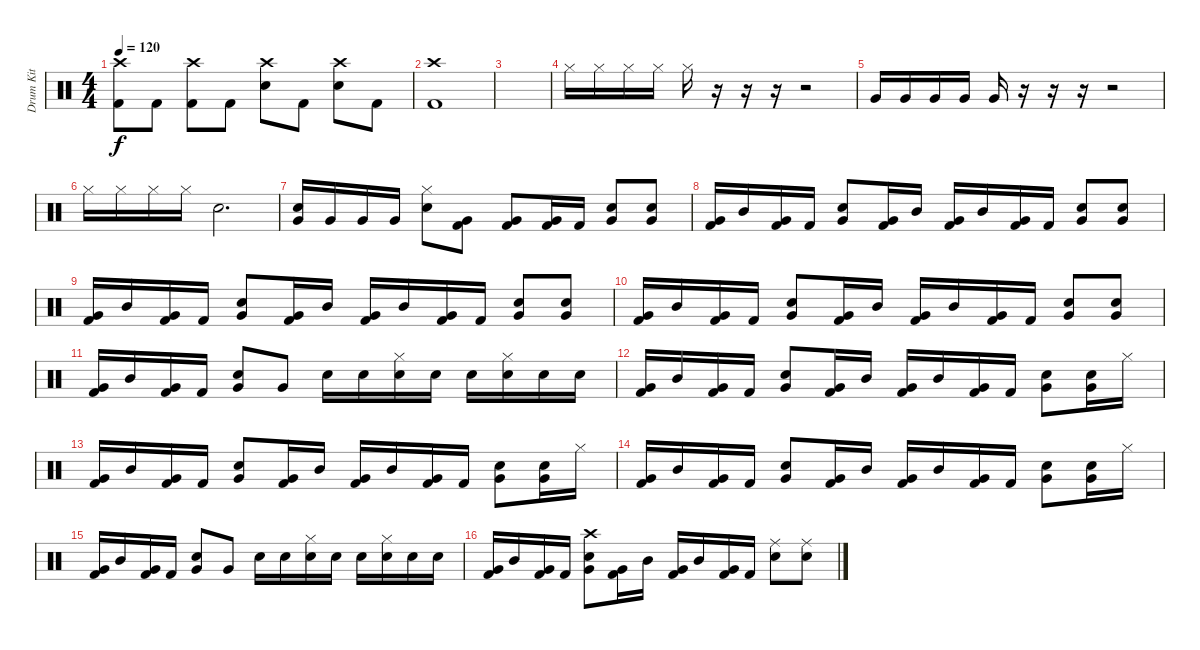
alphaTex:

\track ("Drum Kit" "Drum Kit") {instrument percussion}
\staff {score}
\articulation defaults
\ts (4 4)
\tempo 120
\clef neutral
\ks c
("Crash high (hit)" "Kick (hit) 2").8{dy f} "Kick (hit) 2".8 ("Crash high (hit)" "Kick (hit) 2").8 "Kick (hit) 2".8 ("Crash high (hit)" "Snare (hit) 2").8 "Kick (hit) 2".8 ("Crash high (hit)" "Snare (hit) 2").8 "Kick (hit) 2".8 |
("Crash high (hit)" "Kick (hit) 2").1 |
|
"Hi-Hat (closed)".16 "Hi-Hat (closed)".16 "Hi-Hat (closed)".16 "Hi-Hat (closed)".16 "Hi-Hat (closed)".16 r.16 r.16 r.16 r.2 |
"Very Low Tom (hit)".16 "Very Low Tom (hit)".16 "Very Low Tom (hit)".16 "Very Low Tom (hit)".16 "Very Low Tom (hit)".16 r.16 r.16 r.16 r.2 |
"Hi-Hat (closed)".16 "Hi-Hat (closed)".16 "Hi-Hat (closed)".16 "Hi-Hat (closed)".16 "Snare (hit) 2".2{d} |
("Very Low Tom (hit)" "Snare (hit) 2").16 "Very Low Tom (hit)".16 "Very Low Tom (hit)".16 "Very Low Tom (hit)".16 ("Hi-Hat (closed)" "Snare (hit) 2").8 ("Very Low Tom (hit)" "Kick (hit) 2").8 ("Very Low Tom (hit)" "Kick (hit) 2").8 ("Very Low Tom (hit)" "Kick (hit) 2").16 "Kick (hit) 2".16 ("Very Low Tom (hit)" "Snare (hit) 2").8 ("Very Low Tom (hit)" "Snare (hit) 2").8 |
("Very Low Tom (hit)" "Kick (hit) 2").16 "Mid Tom (hit)".16 ("Very Low Tom (hit)" "Kick (hit) 2").16 "Kick (hit) 2".16 ("Very Low Tom (hit)" "Snare (hit) 2").8 ("Very Low Tom (hit)" "Kick (hit) 2").16 "Mid Tom (hit)".16 ("Very Low Tom (hit)" "Kick (hit) 2").16 "Mid Tom (hit)".16 ("Very Low Tom (hit)" "Kick (hit) 2").16 "Kick (hit) 2".16 ("Very Low Tom (hit)" "Snare (hit) 2").8 ("Very Low Tom (hit)" "Snare (hit) 2").8 |
("Very Low Tom (hit)" "Kick (hit) 2").16 "Mid Tom (hit)".16 ("Very Low Tom (hit)" "Kick (hit) 2").16 "Kick (hit) 2".16 ("Very Low Tom (hit)" "Snare (hit) 2").8 ("Very Low Tom (hit)" "Kick (hit) 2").16 "Mid Tom (hit)".16 ("Very Low Tom (hit)" "Kick (hit) 2").16 "Mid Tom (hit)".16 ("Very Low Tom (hit)" "Kick (hit) 2").16 "Kick (hit) 2".16 ("Very Low Tom (hit)" "Snare (hit) 2").8 ("Very Low Tom (hit)" "Snare (hit) 2").8 |
("Very Low Tom (hit)" "Kick (hit) 2").16 "Mid Tom (hit)".16 ("Very Low Tom (hit)" "Kick (hit) 2").16 "Kick (hit) 2".16 ("Very Low Tom (hit)" "Snare (hit) 2").8 ("Very Low Tom (hit)" "Kick (hit) 2").16 "Mid Tom (hit)".16 ("Very Low Tom (hit)" "Kick (hit) 2").16 "Mid Tom (hit)".16 ("Very Low Tom (hit)" "Kick (hit) 2").16 "Kick (hit) 2".16 ("Very Low Tom (hit)" "Snare (hit) 2").8 ("Very Low Tom (hit)" "Snare (hit) 2").8 |
("Very Low Tom (hit)" "Kick (hit) 2").16 "Mid Tom (hit)".16 ("Very Low Tom (hit)" "Kick (hit) 2").16 "Kick (hit) 2".16 ("Very Low Tom (hit)" "Snare (hit) 2").8 "Very Low Tom (hit)".8 "Snare (hit) 2".16 "Snare (hit) 2".16 ("Hi-Hat (closed)" "Snare (hit) 2").16 "Snare (hit) 2".16 "Snare (hit) 2".16 ("Hi-Hat (closed)" "Snare (hit) 2").16 "Snare (hit) 2".16 "Snare (hit) 2".16 |
("Very Low Tom (hit)" "Kick (hit) 2").16 "Mid Tom (hit)".16 ("Very Low Tom (hit)" "Kick (hit) 2").16 "Kick (hit) 2".16 ("Very Low Tom (hit)" "Snare (hit) 2").8 ("Very Low Tom (hit)" "Kick (hit) 2").16 "Mid Tom (hit)".16 ("Very Low Tom (hit)" "Kick (hit) 2").16 "Mid Tom (hit)".16 ("Very Low Tom (hit)" "Kick (hit) 2").16 "Kick (hit) 2".16 ("Very Low Tom (hit)" "Snare (hit) 2").8 ("Very Low Tom (hit)" "Snare (hit) 2").16 "Hi-Hat (closed)".16 |
("Very Low Tom (hit)" "Kick (hit) 2").16 "Mid Tom (hit)".16 ("Very Low Tom (hit)" "Kick (hit) 2").16 "Kick (hit) 2".16 ("Very Low Tom (hit)" "Snare (hit) 2").8 ("Very Low Tom (hit)" "Kick (hit) 2").16 "Mid Tom (hit)".16 ("Very Low Tom (hit)" "Kick (hit) 2").16 "Mid Tom (hit)".16 ("Very Low Tom (hit)" "Kick (hit) 2").16 "Kick (hit) 2".16 ("Very Low Tom (hit)" "Snare (hit) 2").8 ("Very Low Tom (hit)" "Snare (hit) 2").16 "Hi-Hat (closed)".16 |
("Very Low Tom (hit)" "Kick (hit) 2").16 "Mid Tom (hit)".16 ("Very Low Tom (hit)" "Kick (hit) 2").16 "Kick (hit) 2".16 ("Very Low Tom (hit)" "Snare (hit) 2").8 ("Very Low Tom (hit)" "Kick (hit) 2").16 "Mid Tom (hit)".16 ("Very Low Tom (hit)" "Kick (hit) 2").16 "Mid Tom (hit)".16 ("Very Low Tom (hit)" "Kick (hit) 2").16 "Kick (hit) 2".16 ("Very Low Tom (hit)" "Snare (hit) 2").8 ("Very Low Tom (hit)" "Snare (hit) 2").16 "Hi-Hat (closed)".16 |
("Very Low Tom (hit)" "Kick (hit) 2").16 "Mid Tom (hit)".16 ("Very Low Tom (hit)" "Kick (hit) 2").16 "Kick (hit) 2".16 ("Very Low Tom (hit)" "Snare (hit) 2").8 "Very Low Tom (hit)".8 "Snare (hit) 2".16 "Snare (hit) 2".16 ("Hi-Hat (closed)" "Snare (hit) 2").16 "Snare (hit) 2".16 "Snare (hit) 2".16 ("Hi-Hat (closed)" "Snare (hit) 2").16 "Snare (hit) 2".16 "Snare (hit) 2".16 |
("Very Low Tom (hit)" "Kick (hit) 2").16 "Mid Tom (hit)".16 ("Very Low Tom (hit)" "Kick (hit) 2").16 "Kick (hit) 2".16 ("Crash high (hit)" "Very Low Tom (hit)" "Snare (hit) 2").8 ("Very Low Tom (hit)" "Kick (hit) 2").16 "Mid Tom (hit)".16 ("Very Low Tom (hit)" "Kick (hit) 2").16 "Mid Tom (hit)".16 ("Very Low Tom (hit)" "Kick (hit) 2").16 "Kick (hit) 2".16 ("Ride (middle)" "Snare (hit) 2").8 ("Ride (middle)" "Snare (hit) 2").8
